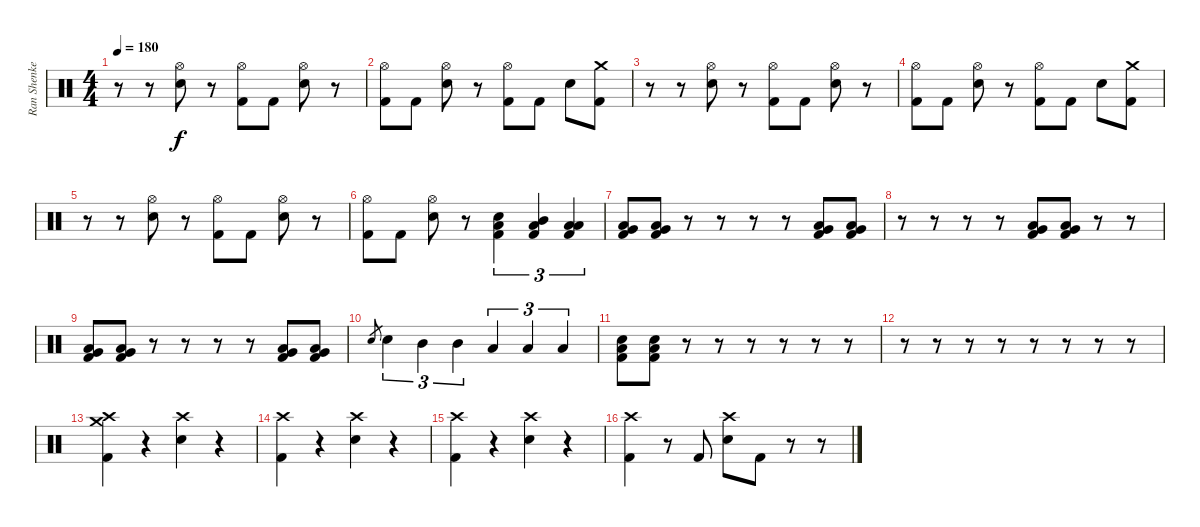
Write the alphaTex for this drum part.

\track ("Ran Shenkerman" "Ran Shenke") {instrument percussion}
\staff {score}
\articulation defaults
\ts (4 4)
\tempo 180
\clef neutral
\ks c
r.8{dy ff} r.8 ("Hi-Hat (open)" "Snare (hit) 2").8{dy f} r.8 ("Hi-Hat (open)" "Kick (hit) 2").8 "Kick (hit) 2".8 ("Hi-Hat (open)" "Snare (hit) 2").8 r.8 |
("Hi-Hat (open)" "Kick (hit) 2").8 "Kick (hit) 2".8 ("Hi-Hat (open)" "Snare (hit) 2").8 r.8 ("Hi-Hat (open)" "Kick (hit) 2").8 "Kick (hit) 2".8 "Snare (hit) 2".8 ("Crash medium (hit)" "Kick (hit) 2").8 |
r.8 r.8 ("Hi-Hat (open)" "Snare (hit) 2").8 r.8 ("Hi-Hat (open)" "Kick (hit) 2").8 "Kick (hit) 2".8 ("Hi-Hat (open)" "Snare (hit) 2").8 r.8 |
("Hi-Hat (open)" "Kick (hit) 2").8 "Kick (hit) 2".8 ("Hi-Hat (open)" "Snare (hit) 2").8 r.8 ("Hi-Hat (open)" "Kick (hit) 2").8 "Kick (hit) 2".8 "Snare (hit) 2".8 ("Crash medium (hit)" "Kick (hit) 2").8 |
r.8 r.8 ("Hi-Hat (open)" "Snare (hit) 2").8 r.8 ("Hi-Hat (open)" "Kick (hit) 2").8 "Kick (hit) 2".8 ("Hi-Hat (open)" "Snare (hit) 2").8 r.8 |
("Hi-Hat (open)" "Kick (hit) 2").8 "Kick (hit) 2".8 ("Hi-Hat (open)" "Snare (hit) 2").8 r.8 ("Snare (hit) 2" "Low Floor Tom (hit)" "Kick (hit) 2").4{tu (3 2)} ("Mid Tom (hit)" "Low Floor Tom (hit)" "Kick (hit) 2").4{tu (3 2)} ("Low Tom (hit)" "Low Floor Tom (hit)" "Kick (hit) 2").4{tu (3 2)} |
("Very Low Tom (hit)" "Low Floor Tom (hit)" "Kick (hit) 2").8 ("Very Low Tom (hit)" "Low Floor Tom (hit)" "Kick (hit) 2").8 r.8 r.8 r.8 r.8 ("Very Low Tom (hit)" "Low Floor Tom (hit)" "Kick (hit) 2").8 ("Very Low Tom (hit)" "Low Floor Tom (hit)" "Kick (hit) 2").8 |
r.8 r.8 r.8 r.8 ("Very Low Tom (hit)" "Low Floor Tom (hit)" "Kick (hit) 2").8 ("Very Low Tom (hit)" "Low Floor Tom (hit)" "Kick (hit) 2").8 r.8 r.8 |
("Very Low Tom (hit)" "Low Floor Tom (hit)" "Kick (hit) 2").8 ("Very Low Tom (hit)" "Low Floor Tom (hit)" "Kick (hit) 2").8 r.8 r.8 r.8 r.8 ("Very Low Tom (hit)" "Low Floor Tom (hit)" "Kick (hit) 2").8 ("Very Low Tom (hit)" "Low Floor Tom (hit)" "Kick (hit) 2").8 |
"Snare (hit) 2".8{gr} "Snare (hit) 2".4{tu (3 2)} "Mid Tom (hit)".4{tu (3 2)} "Mid Tom (hit)".4{tu (3 2)} "Low Tom (hit)".4{tu (3 2)} "Low Tom (hit)".4{tu (3 2)} "Low Floor Tom (hit)".4{tu (3 2)} |
("Snare (hit) 2" "Low Floor Tom (hit)" "Kick (hit) 2").8 ("Snare (hit) 2" "Low Floor Tom (hit)" "Kick (hit) 2").8 r.8 r.8 r.8 r.8 r.8 r.8 |
r.8 r.8 r.8 r.8 r.8 r.8 r.8 r.8 |
("Crash high (hit)" "Crash medium (hit)" "Kick (hit) 2").4 r.4 ("Crash high (hit)" "Snare (hit) 2").4 r.4 |
("Crash high (hit)" "Kick (hit) 2").4 r.4 ("Crash high (hit)" "Snare (hit) 2").4 r.4 |
("Crash high (hit)" "Kick (hit) 2").4 r.4 ("Crash high (hit)" "Snare (hit) 2").4 r.4 |
("Crash high (hit)" "Kick (hit) 2").4 r.8 "Kick (hit) 2".8 ("Crash high (hit)" "Snare (hit) 2").8 "Kick (hit) 2".8 r.8 r.8
